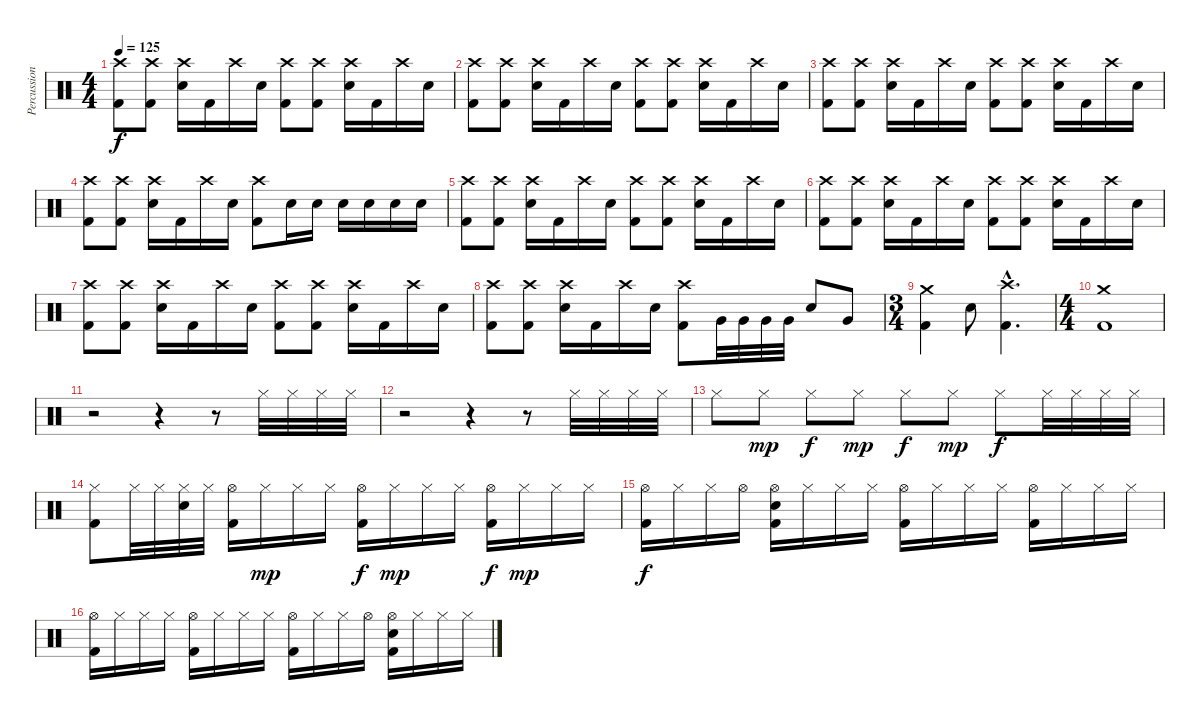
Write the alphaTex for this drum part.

\track ("Percussion" "Percussion") {instrument percussion}
\staff {score}
\articulation defaults
\ts (4 4)
\tempo 125
\clef neutral
\ks c
("Crash high (hit)" "Kick (hit) 2").8{dy f} ("Crash high (hit)" "Kick (hit) 2").8 ("Crash high (hit)" "Snare (hit) 2").16 "Kick (hit) 2".16 "Crash high (hit)".16 "Snare (hit) 2".16 ("Crash high (hit)" "Kick (hit) 2").8 ("Crash high (hit)" "Kick (hit) 2").8 ("Crash high (hit)" "Snare (hit) 2").16 "Kick (hit) 2".16 "Crash high (hit)".16 "Snare (hit) 2".16 |
("Crash high (hit)" "Kick (hit) 2").8 ("Crash high (hit)" "Kick (hit) 2").8 ("Crash high (hit)" "Snare (hit) 2").16 "Kick (hit) 2".16 "Crash high (hit)".16 "Snare (hit) 2".16 ("Crash high (hit)" "Kick (hit) 2").8 ("Crash high (hit)" "Kick (hit) 2").8 ("Crash high (hit)" "Snare (hit) 2").16 "Kick (hit) 2".16 "Crash high (hit)".16 "Snare (hit) 2".16 |
("Crash high (hit)" "Kick (hit) 2").8 ("Crash high (hit)" "Kick (hit) 2").8 ("Crash high (hit)" "Snare (hit) 2").16 "Kick (hit) 2".16 "Crash high (hit)".16 "Snare (hit) 2".16 ("Crash high (hit)" "Kick (hit) 2").8 ("Crash high (hit)" "Kick (hit) 2").8 ("Crash high (hit)" "Snare (hit) 2").16 "Kick (hit) 2".16 "Crash high (hit)".16 "Snare (hit) 2".16 |
("Crash high (hit)" "Kick (hit) 2").8 ("Crash high (hit)" "Kick (hit) 2").8 ("Crash high (hit)" "Snare (hit) 2").16 "Kick (hit) 2".16 "Crash high (hit)".16 "Snare (hit) 2".16 ("Crash high (hit)" "Kick (hit) 2").8 "Snare (hit) 2".16 "Snare (hit) 2".16 "Snare (hit) 2".16 "Snare (hit) 2".16 "Snare (hit) 2".16 "Snare (hit) 2".16 |
("Crash high (hit)" "Kick (hit) 2").8 ("Crash high (hit)" "Kick (hit) 2").8 ("Crash high (hit)" "Snare (hit) 2").16 "Kick (hit) 2".16 "Crash high (hit)".16 "Snare (hit) 2".16 ("Crash high (hit)" "Kick (hit) 2").8 ("Crash high (hit)" "Kick (hit) 2").8 ("Crash high (hit)" "Snare (hit) 2").16 "Kick (hit) 2".16 "Crash high (hit)".16 "Snare (hit) 2".16 |
("Crash high (hit)" "Kick (hit) 2").8 ("Crash high (hit)" "Kick (hit) 2").8 ("Crash high (hit)" "Snare (hit) 2").16 "Kick (hit) 2".16 "Crash high (hit)".16 "Snare (hit) 2".16 ("Crash high (hit)" "Kick (hit) 2").8 ("Crash high (hit)" "Kick (hit) 2").8 ("Crash high (hit)" "Snare (hit) 2").16 "Kick (hit) 2".16 "Crash high (hit)".16 "Snare (hit) 2".16 |
("Crash high (hit)" "Kick (hit) 2").8 ("Crash high (hit)" "Kick (hit) 2").8 ("Crash high (hit)" "Snare (hit) 2").16 "Kick (hit) 2".16 "Crash high (hit)".16 "Snare (hit) 2".16 ("Crash high (hit)" "Kick (hit) 2").8 ("Crash high (hit)" "Kick (hit) 2").8 ("Crash high (hit)" "Snare (hit) 2").16 "Kick (hit) 2".16 "Crash high (hit)".16 "Snare (hit) 2".16 |
("Crash high (hit)" "Kick (hit) 2").8 ("Crash high (hit)" "Kick (hit) 2").8 ("Crash high (hit)" "Snare (hit) 2").16 "Kick (hit) 2".16 "Crash high (hit)".16 "Snare (hit) 2".16 ("Crash high (hit)" "Kick (hit) 2").8 "Very Low Tom (hit)".32 "Very Low Tom (hit)".32 "Very Low Tom (hit)".32 "Very Low Tom (hit)".32 "Snare (hit) 2".8 "Very Low Tom (hit)".8 |
\ts (3 4)
("Crash medium (hit)" "Kick (hit) 2").4 "Snare (hit) 2".8 ("Crash high (hit)"{hac} "Kick (hit) 2"{hac}).4{d} |
\ts (4 4)
("Crash medium (hit)" "Kick (hit) 2").1 |
r.2 r.4 r.8 "Hi-Hat (closed)".32 "Hi-Hat (closed)".32 "Hi-Hat (closed)".32 "Hi-Hat (closed)".32 |
r.2 r.4 r.8 "Hi-Hat (closed)".32 "Hi-Hat (closed)".32 "Hi-Hat (closed)".32 "Hi-Hat (closed)".32 |
"Hi-Hat (closed)".8 "Hi-Hat (closed)".8{dy mp} "Hi-Hat (closed)".8{dy f} "Hi-Hat (closed)".8{dy mp} "Hi-Hat (closed)".8{dy f} "Hi-Hat (closed)".8{dy mp} "Hi-Hat (closed)".8{dy f} "Hi-Hat (closed)".32 "Hi-Hat (closed)".32 "Hi-Hat (closed)".32 "Hi-Hat (closed)".32 |
("Hi-Hat (closed)" "Kick (hit) 2").8 "Hi-Hat (closed)".32 "Hi-Hat (closed)".32 ("Hi-Hat (closed)" "Snare (hit) 2").32 "Hi-Hat (closed)".32 ("Hi-Hat (open)" "Kick (hit) 2").16 "Hi-Hat (closed)".16{dy mp} "Hi-Hat (closed)".16 "Hi-Hat (closed)".16 ("Hi-Hat (open)" "Kick (hit) 2").16{dy f} "Hi-Hat (closed)".16{dy mp} "Hi-Hat (closed)".16 "Hi-Hat (closed)".16 ("Hi-Hat (open)" "Kick (hit) 2").16{dy f} "Hi-Hat (closed)".16{dy mp} "Hi-Hat (closed)".16 "Hi-Hat (closed)".16 |
("Hi-Hat (open)" "Kick (hit) 2").16{dy f} "Hi-Hat (closed)".16 "Hi-Hat (closed)".16 "Hi-Hat (open)".16 ("Hi-Hat (open)" "Snare (hit) 2" "Kick (hit) 2").16 "Hi-Hat (closed)".16 "Hi-Hat (closed)".16 "Hi-Hat (closed)".16 ("Hi-Hat (open)" "Kick (hit) 2").16 "Hi-Hat (closed)".16 "Hi-Hat (closed)".16 "Hi-Hat (closed)".16 ("Hi-Hat (open)" "Kick (hit) 2").16 "Hi-Hat (closed)".16 "Hi-Hat (closed)".16 "Hi-Hat (closed)".16 |
("Hi-Hat (open)" "Kick (hit) 2").16 "Hi-Hat (closed)".16 "Hi-Hat (closed)".16 "Hi-Hat (closed)".16 ("Hi-Hat (open)" "Kick (hit) 2").16 "Hi-Hat (closed)".16 "Hi-Hat (closed)".16 "Hi-Hat (closed)".16 ("Hi-Hat (open)" "Kick (hit) 2").16 "Hi-Hat (closed)".16 "Hi-Hat (closed)".16 "Hi-Hat (open)".16 ("Hi-Hat (open)" "Snare (hit) 2" "Kick (hit) 2").16 "Hi-Hat (closed)".16 "Hi-Hat (closed)".16 "Hi-Hat (closed)".16
